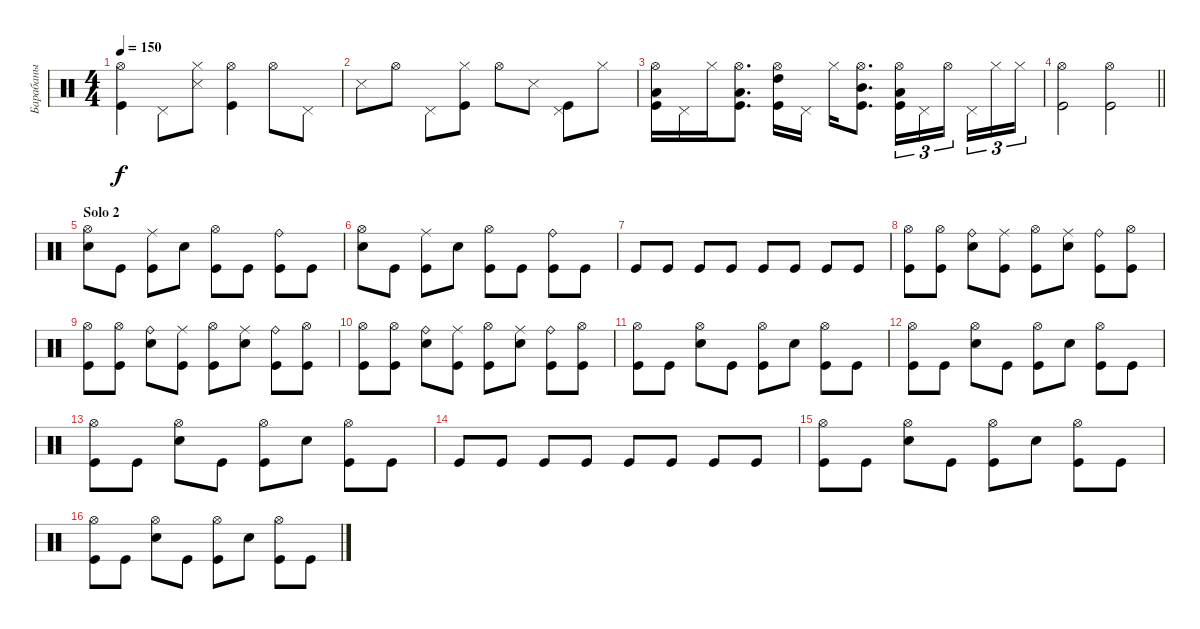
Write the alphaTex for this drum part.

\track ("Барабаны" "Барабаны") {instrument percussion}
\staff {score}
\articulation defaults
\ts (4 4)
\tempo 150
\clef neutral
\ks c
("Hi-Hat (open)" "Kick (hit)").4{dy f} "Pedal Hi-Hat (hit)".8 ("Hi-Hat (closed)" "Snare (side stick) 3").8 ("Hi-Hat (open)" "Kick (hit)").4 "Hi-Hat (open)".8 "Pedal Hi-Hat (hit)".8 |
"Snare (side stick) 3".8 "Hi-Hat (open)".8 "Pedal Hi-Hat (hit)".8 ("Hi-Hat (closed)" "Kick (hit)").8 "Hi-Hat (open)".8 "Snare (side stick) 3".8 ("Pedal Hi-Hat (hit)" "Kick (hit)").8 "Hi-Hat (closed)".8 |
("Hi-Hat (open)" "Low Tom (hit)" "Kick (hit)").16 "Pedal Hi-Hat (hit)".16 "Hi-Hat (closed)".16 ("Hi-Hat (open)" "Low Tom (hit)" "Kick (hit)").8{d} ("Hi-Hat (open)" "High Tom (hit)" "Kick (hit)").16 "Pedal Hi-Hat (hit)".16 "Hi-Hat (closed)".16 ("Hi-Hat (open)" "Mid Tom (hit)" "Kick (hit)").8{d} ("Hi-Hat (open)" "Low Tom (hit)" "Kick (hit)").16{tu (3 2)} "Pedal Hi-Hat (hit)".16{tu (3 2)} "Hi-Hat (open)".16{tu (3 2) beam splitsecondary} "Pedal Hi-Hat (hit)".16{tu (3 2)} "Hi-Hat (closed)".16{tu (3 2)} "Hi-Hat (closed)".16{tu (3 2)} |
\barLineRight lightlight
("Hi-Hat (open)" "Kick (hit)").2 ("Hi-Hat (open)" "Kick (hit)").2 |
\section ("" "Solo 2")
("Hi-Hat (open)" "Snare (hit) 2").8 "Kick (hit)".8 ("Ride (middle)" "Kick (hit)").8 "Snare (hit) 2".8 ("Hi-Hat (open)" "Kick (hit)").8 "Kick (hit)".8 ("Ride (bell)" "Kick (hit)").8 "Kick (hit)".8 |
("Hi-Hat (open)" "Snare (hit) 2").8 "Kick (hit)".8 ("Ride (middle)" "Kick (hit)").8 "Snare (hit) 2".8 ("Hi-Hat (open)" "Kick (hit)").8 "Kick (hit)".8 ("Ride (bell)" "Kick (hit)").8 "Kick (hit)".8 |
"Kick (hit)".8 "Kick (hit)".8 "Kick (hit)".8 "Kick (hit)".8 "Kick (hit)".8 "Kick (hit)".8 "Kick (hit)".8 "Kick (hit)".8 |
("Hi-Hat (open)" "Kick (hit)").8 ("Hi-Hat (open)" "Kick (hit)").8 ("Ride (bell)" "Snare (hit) 2").8 ("Ride (middle)" "Kick (hit)").8 ("Hi-Hat (open)" "Kick (hit)").8 ("Ride (middle)" "Snare (hit) 2").8 ("Ride (bell)" "Kick (hit)").8 ("Hi-Hat (open)" "Kick (hit)").8 |
("Hi-Hat (open)" "Kick (hit)").8 ("Hi-Hat (open)" "Kick (hit)").8 ("Ride (bell)" "Snare (hit) 2").8 ("Ride (middle)" "Kick (hit)").8 ("Hi-Hat (open)" "Kick (hit)").8 ("Ride (middle)" "Snare (hit) 2").8 ("Ride (bell)" "Kick (hit)").8 ("Hi-Hat (open)" "Kick (hit)").8 |
("Hi-Hat (open)" "Kick (hit)").8 ("Hi-Hat (open)" "Kick (hit)").8 ("Ride (bell)" "Snare (hit) 2").8 ("Ride (middle)" "Kick (hit)").8 ("Hi-Hat (open)" "Kick (hit)").8 ("Ride (middle)" "Snare (hit) 2").8 ("Ride (bell)" "Kick (hit)").8 ("Hi-Hat (open)" "Kick (hit)").8 |
("Hi-Hat (open)" "Kick (hit)").8 "Kick (hit)".8 ("Hi-Hat (open)" "Snare (hit) 2").8 "Kick (hit)".8 ("Hi-Hat (open)" "Kick (hit)").8 "Snare (hit) 2".8 ("Hi-Hat (open)" "Kick (hit)").8 "Kick (hit)".8 |
("Hi-Hat (open)" "Kick (hit)").8 "Kick (hit)".8 ("Hi-Hat (open)" "Snare (hit) 2").8 "Kick (hit)".8 ("Hi-Hat (open)" "Kick (hit)").8 "Snare (hit) 2".8 ("Hi-Hat (open)" "Kick (hit)").8 "Kick (hit)".8 |
("Hi-Hat (open)" "Kick (hit)").8 "Kick (hit)".8 ("Hi-Hat (open)" "Snare (hit) 2").8 "Kick (hit)".8 ("Hi-Hat (open)" "Kick (hit)").8 "Snare (hit) 2".8 ("Hi-Hat (open)" "Kick (hit)").8 "Kick (hit)".8 |
"Kick (hit)".8 "Kick (hit)".8 "Kick (hit)".8 "Kick (hit)".8 "Kick (hit)".8 "Kick (hit)".8 "Kick (hit)".8 "Kick (hit)".8 |
("Hi-Hat (open)" "Kick (hit)").8 "Kick (hit)".8 ("Hi-Hat (open)" "Snare (hit) 2").8 "Kick (hit)".8 ("Hi-Hat (open)" "Kick (hit)").8 "Snare (hit) 2".8 ("Hi-Hat (open)" "Kick (hit)").8 "Kick (hit)".8 |
("Hi-Hat (open)" "Kick (hit)").8 "Kick (hit)".8 ("Hi-Hat (open)" "Snare (hit) 2").8 "Kick (hit)".8 ("Hi-Hat (open)" "Kick (hit)").8 "Snare (hit) 2".8 ("Hi-Hat (open)" "Kick (hit)").8 "Kick (hit)".8
